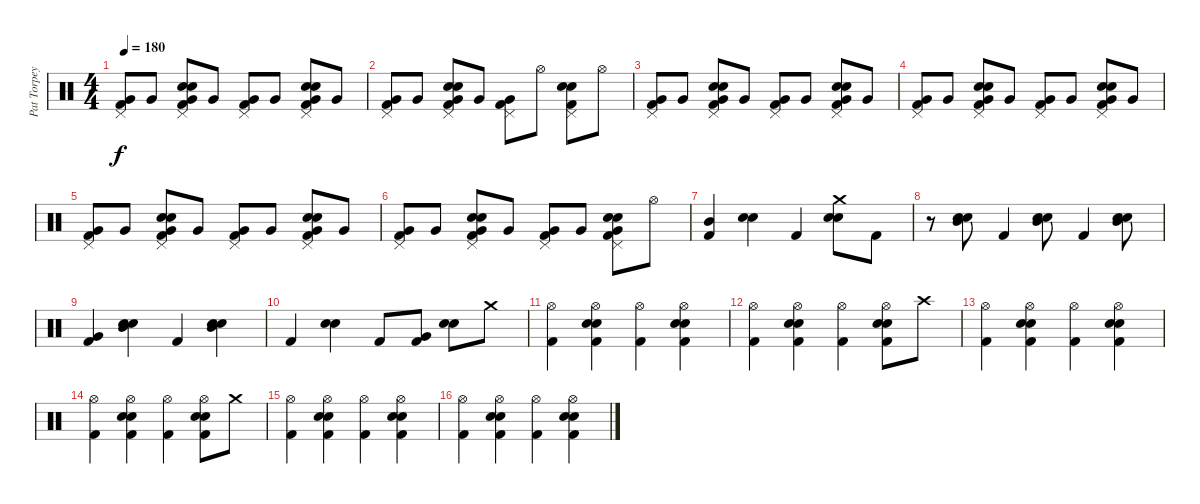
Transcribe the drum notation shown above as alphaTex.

\track ("Pat Torpey" "Pat Torpey") {instrument percussion}
\staff {score}
\articulation defaults
\ts (4 4)
\tempo 180
\clef neutral
\ks c
("Pedal Hi-Hat (hit)" "Very Low Tom (hit)" "Kick (hit) 2").8{dy f} "Very Low Tom (hit)".8 ("Pedal Hi-Hat (hit)" "Very Low Tom (hit)" "Snare (hit) 2" "Electric Snare (hit)" "Kick (hit) 2").8 "Very Low Tom (hit)".8 ("Pedal Hi-Hat (hit)" "Very Low Tom (hit)" "Kick (hit) 2").8 "Very Low Tom (hit)".8 ("Pedal Hi-Hat (hit)" "Very Low Tom (hit)" "Snare (hit) 2" "Electric Snare (hit)" "Kick (hit) 2").8 "Very Low Tom (hit)".8 |
("Pedal Hi-Hat (hit)" "Very Low Tom (hit)" "Kick (hit) 2").8 "Very Low Tom (hit)".8 ("Pedal Hi-Hat (hit)" "Very Low Tom (hit)" "Snare (hit) 2" "Electric Snare (hit)" "Kick (hit) 2").8 "Very Low Tom (hit)".8 ("Pedal Hi-Hat (hit)" "Very Low Tom (hit)" "Kick (hit) 2").8 "Hi-Hat (open)".8 ("Pedal Hi-Hat (hit)" "Snare (hit) 2" "Electric Snare (hit)" "Kick (hit) 2").8 "Hi-Hat (open)".8 |
("Pedal Hi-Hat (hit)" "Very Low Tom (hit)" "Kick (hit) 2").8 "Very Low Tom (hit)".8 ("Pedal Hi-Hat (hit)" "Very Low Tom (hit)" "Snare (hit) 2" "Electric Snare (hit)" "Kick (hit) 2").8 "Very Low Tom (hit)".8 ("Pedal Hi-Hat (hit)" "Very Low Tom (hit)" "Kick (hit) 2").8 "Very Low Tom (hit)".8 ("Pedal Hi-Hat (hit)" "Very Low Tom (hit)" "Snare (hit) 2" "Electric Snare (hit)" "Kick (hit) 2").8 "Very Low Tom (hit)".8 |
("Pedal Hi-Hat (hit)" "Very Low Tom (hit)" "Kick (hit) 2").8 "Very Low Tom (hit)".8 ("Pedal Hi-Hat (hit)" "Very Low Tom (hit)" "Snare (hit) 2" "Electric Snare (hit)" "Kick (hit) 2").8 "Very Low Tom (hit)".8 ("Pedal Hi-Hat (hit)" "Very Low Tom (hit)" "Kick (hit) 2").8 "Very Low Tom (hit)".8 ("Pedal Hi-Hat (hit)" "Very Low Tom (hit)" "Snare (hit) 2" "Electric Snare (hit)" "Kick (hit) 2").8 "Very Low Tom (hit)".8 |
("Pedal Hi-Hat (hit)" "Very Low Tom (hit)" "Kick (hit) 2").8 "Very Low Tom (hit)".8 ("Pedal Hi-Hat (hit)" "Very Low Tom (hit)" "Snare (hit) 2" "Electric Snare (hit)" "Kick (hit) 2").8 "Very Low Tom (hit)".8 ("Pedal Hi-Hat (hit)" "Very Low Tom (hit)" "Kick (hit) 2").8 "Very Low Tom (hit)".8 ("Pedal Hi-Hat (hit)" "Very Low Tom (hit)" "Snare (hit) 2" "Electric Snare (hit)" "Kick (hit) 2").8 "Very Low Tom (hit)".8 |
("Pedal Hi-Hat (hit)" "Very Low Tom (hit)" "Kick (hit) 2").8 "Very Low Tom (hit)".8 ("Pedal Hi-Hat (hit)" "Very Low Tom (hit)" "Snare (hit) 2" "Electric Snare (hit)" "Kick (hit) 2").8 "Very Low Tom (hit)".8 ("Pedal Hi-Hat (hit)" "Very Low Tom (hit)" "Kick (hit) 2").8 "Very Low Tom (hit)".8 ("Pedal Hi-Hat (hit)" "Very Low Tom (hit)" "Snare (hit) 2" "Electric Snare (hit)" "Kick (hit) 2").8 "Hi-Hat (open)".8 |
("Mid Tom (hit)" "Kick (hit) 2").4 ("Snare (hit) 2" "Electric Snare (hit)").4 "Kick (hit) 2".4 ("Crash medium (hit)" "Snare (hit) 2" "Electric Snare (hit)").8 "Kick (hit) 2".8 |
r.8 ("Mid Tom (hit)" "Snare (hit) 2" "Electric Snare (hit)").8 "Kick (hit) 2".4 ("Mid Tom (hit)" "Snare (hit) 2" "Electric Snare (hit)").8 "Kick (hit) 2".4 ("Mid Tom (hit)" "Snare (hit) 2" "Electric Snare (hit)").8 |
("Very Low Tom (hit)" "Kick (hit) 2").4 ("Mid Tom (hit)" "Snare (hit) 2" "Electric Snare (hit)").4 "Kick (hit) 2".4 ("Mid Tom (hit)" "Snare (hit) 2" "Electric Snare (hit)").4 |
"Kick (hit) 2".4 ("Snare (hit) 2" "Electric Snare (hit)").4 "Kick (hit) 2".8 ("Very Low Tom (hit)" "Kick (hit) 2").8 ("Snare (hit) 2" "Electric Snare (hit)").8 "Crash medium (hit)".8 |
("Hi-Hat (open)" "Kick (hit) 2").4 ("Hi-Hat (open)" "Snare (hit) 2" "Electric Snare (hit)" "Kick (hit) 2").4 ("Hi-Hat (open)" "Kick (hit) 2").4 ("Hi-Hat (open)" "Snare (hit) 2" "Electric Snare (hit)" "Kick (hit) 2").4 |
("Hi-Hat (open)" "Kick (hit) 2").4 ("Hi-Hat (open)" "Snare (hit) 2" "Electric Snare (hit)" "Kick (hit) 2").4 ("Hi-Hat (open)" "Kick (hit) 2").4 ("Hi-Hat (open)" "Snare (hit) 2" "Electric Snare (hit)" "Kick (hit) 2").8 "Crash high (hit)".8 |
("Hi-Hat (open)" "Kick (hit) 2").4 ("Hi-Hat (open)" "Snare (hit) 2" "Electric Snare (hit)" "Kick (hit) 2").4 ("Hi-Hat (open)" "Kick (hit) 2").4 ("Hi-Hat (open)" "Snare (hit) 2" "Electric Snare (hit)" "Kick (hit) 2").4 |
("Hi-Hat (open)" "Kick (hit) 2").4 ("Hi-Hat (open)" "Snare (hit) 2" "Electric Snare (hit)" "Kick (hit) 2").4 ("Hi-Hat (open)" "Kick (hit) 2").4 ("Hi-Hat (open)" "Snare (hit) 2" "Electric Snare (hit)" "Kick (hit) 2").8 "Crash medium (hit)".8 |
("Hi-Hat (open)" "Kick (hit) 2").4 ("Hi-Hat (open)" "Snare (hit) 2" "Electric Snare (hit)" "Kick (hit) 2").4 ("Hi-Hat (open)" "Kick (hit) 2").4 ("Hi-Hat (open)" "Snare (hit) 2" "Electric Snare (hit)" "Kick (hit) 2").4 |
("Hi-Hat (open)" "Kick (hit) 2").4 ("Hi-Hat (open)" "Snare (hit) 2" "Electric Snare (hit)" "Kick (hit) 2").4 ("Hi-Hat (open)" "Kick (hit) 2").4 ("Hi-Hat (open)" "Snare (hit) 2" "Electric Snare (hit)" "Kick (hit) 2").4
